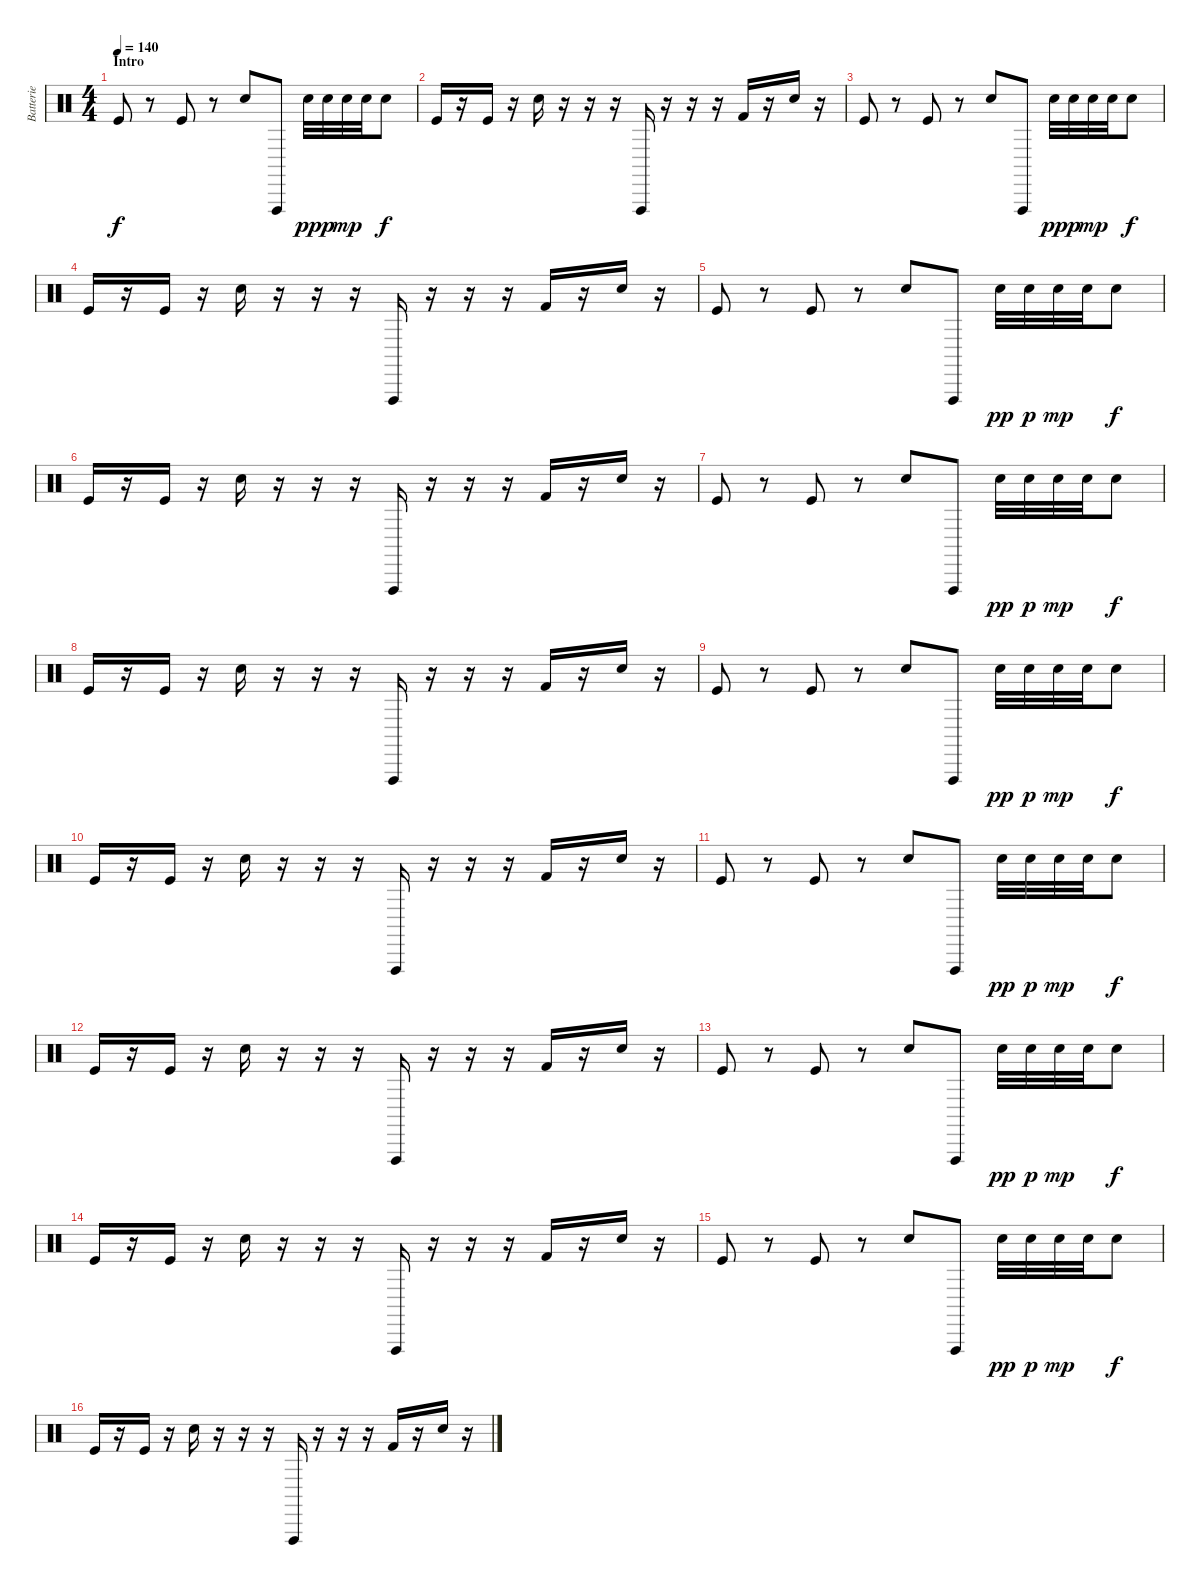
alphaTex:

\track ("Batterie" "Batterie") {instrument percussion}
\staff {score}
\articulation defaults
\ts (4 4)
\section ("" "Intro")
\tempo 140
\clef neutral
\ks c "Kick (hit)".8{dy f}
r.8 "Kick (hit)".8 r.8 "Snare (hit) 2".8 "Vibraslap (hit)".8 "Snare (hit) 2".32{dy pp} "Snare (hit) 2".32{dy p} "Snare (hit) 2".32{dy mp} "Snare (hit) 2".32 "Snare (hit) 2".8{dy f} |
"Kick (hit)".16 r.16 "Kick (hit)".16 r.16 "Snare (hit) 2".16 r.16 r.16 r.16 "Vibraslap (hit)".16 r.16 r.16 r.16 "Kick (hit) 2".16 r.16 "Snare (hit) 2".16 r.16 |
"Kick (hit)".8 r.8 "Kick (hit)".8 r.8 "Snare (hit) 2".8 "Vibraslap (hit)".8 "Snare (hit) 2".32{dy pp} "Snare (hit) 2".32{dy p} "Snare (hit) 2".32{dy mp} "Snare (hit) 2".32 "Snare (hit) 2".8{dy f} |
"Kick (hit)".16 r.16 "Kick (hit)".16 r.16 "Snare (hit) 2".16 r.16 r.16 r.16 "Vibraslap (hit)".16 r.16 r.16 r.16 "Kick (hit) 2".16 r.16 "Snare (hit) 2".16 r.16 |
"Kick (hit)".8 r.8 "Kick (hit)".8 r.8 "Snare (hit) 2".8 "Vibraslap (hit)".8 "Snare (hit) 2".32{dy pp} "Snare (hit) 2".32{dy p} "Snare (hit) 2".32{dy mp} "Snare (hit) 2".32 "Snare (hit) 2".8{dy f} |
"Kick (hit)".16 r.16 "Kick (hit)".16 r.16 "Snare (hit) 2".16 r.16 r.16 r.16 "Vibraslap (hit)".16 r.16 r.16 r.16 "Kick (hit) 2".16 r.16 "Snare (hit) 2".16 r.16 |
"Kick (hit)".8 r.8 "Kick (hit)".8 r.8 "Snare (hit) 2".8 "Vibraslap (hit)".8 "Snare (hit) 2".32{dy pp} "Snare (hit) 2".32{dy p} "Snare (hit) 2".32{dy mp} "Snare (hit) 2".32 "Snare (hit) 2".8{dy f} |
"Kick (hit)".16 r.16 "Kick (hit)".16 r.16 "Snare (hit) 2".16 r.16 r.16 r.16 "Vibraslap (hit)".16 r.16 r.16 r.16 "Kick (hit) 2".16 r.16 "Snare (hit) 2".16 r.16 |
"Kick (hit)".8 r.8 "Kick (hit)".8 r.8 "Snare (hit) 2".8 "Vibraslap (hit)".8 "Snare (hit) 2".32{dy pp} "Snare (hit) 2".32{dy p} "Snare (hit) 2".32{dy mp} "Snare (hit) 2".32 "Snare (hit) 2".8{dy f} |
"Kick (hit)".16 r.16 "Kick (hit)".16 r.16 "Snare (hit) 2".16 r.16 r.16 r.16 "Vibraslap (hit)".16 r.16 r.16 r.16 "Kick (hit) 2".16 r.16 "Snare (hit) 2".16 r.16 |
"Kick (hit)".8 r.8 "Kick (hit)".8 r.8 "Snare (hit) 2".8 "Vibraslap (hit)".8 "Snare (hit) 2".32{dy pp} "Snare (hit) 2".32{dy p} "Snare (hit) 2".32{dy mp} "Snare (hit) 2".32 "Snare (hit) 2".8{dy f} |
"Kick (hit)".16 r.16 "Kick (hit)".16 r.16 "Snare (hit) 2".16 r.16 r.16 r.16 "Vibraslap (hit)".16 r.16 r.16 r.16 "Kick (hit) 2".16 r.16 "Snare (hit) 2".16 r.16 |
"Kick (hit)".8 r.8 "Kick (hit)".8 r.8 "Snare (hit) 2".8 "Vibraslap (hit)".8 "Snare (hit) 2".32{dy pp} "Snare (hit) 2".32{dy p} "Snare (hit) 2".32{dy mp} "Snare (hit) 2".32 "Snare (hit) 2".8{dy f} |
"Kick (hit)".16 r.16 "Kick (hit)".16 r.16 "Snare (hit) 2".16 r.16 r.16 r.16 "Vibraslap (hit)".16 r.16 r.16 r.16 "Kick (hit) 2".16 r.16 "Snare (hit) 2".16 r.16 |
"Kick (hit)".8 r.8 "Kick (hit)".8 r.8 "Snare (hit) 2".8 "Vibraslap (hit)".8 "Snare (hit) 2".32{dy pp} "Snare (hit) 2".32{dy p} "Snare (hit) 2".32{dy mp} "Snare (hit) 2".32 "Snare (hit) 2".8{dy f} |
"Kick (hit)".16 r.16 "Kick (hit)".16 r.16 "Snare (hit) 2".16 r.16 r.16 r.16 "Vibraslap (hit)".16 r.16 r.16 r.16 "Kick (hit) 2".16 r.16 "Snare (hit) 2".16 r.16
